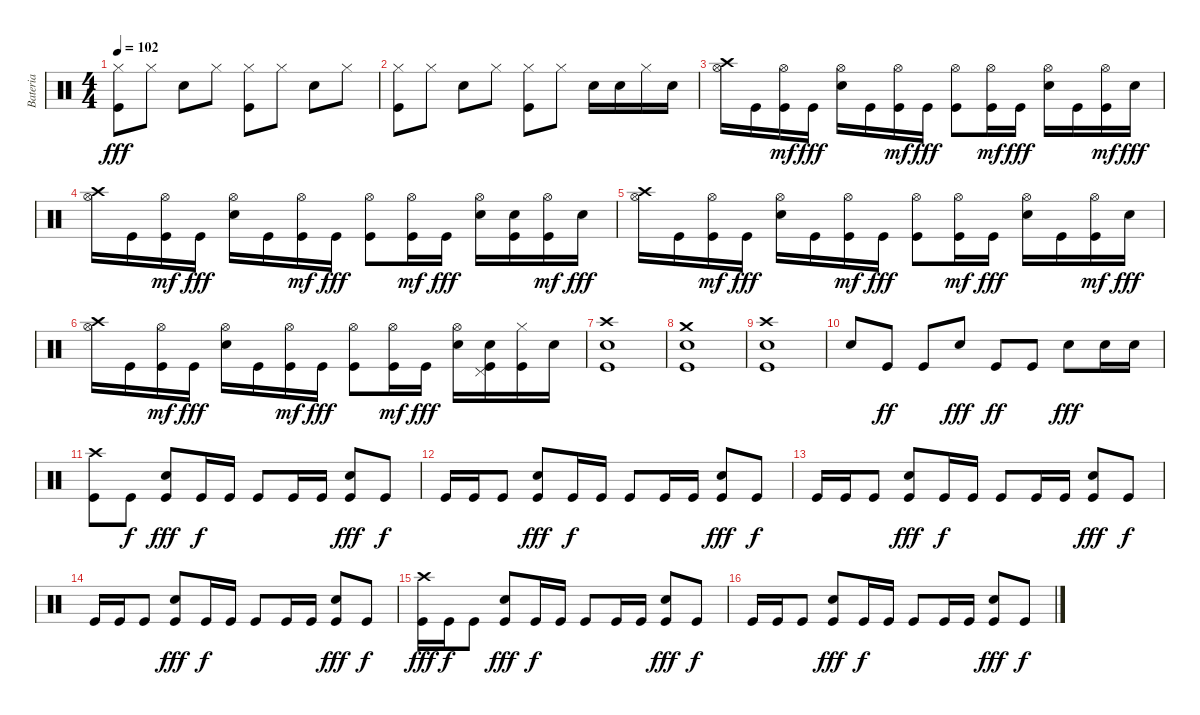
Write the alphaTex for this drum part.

\track ("Bateria" "Bateria") {instrument percussion}
\staff {score}
\articulation defaults
\ts (4 4)
\tempo 102
\clef neutral
\ks c
("Kick (hit)" "Hi-Hat (closed)").8{dy fff} "Hi-Hat (closed)".8 "Snare (hit) 2".8 "Hi-Hat (closed)".8 ("Kick (hit)" "Hi-Hat (closed)").8 "Hi-Hat (closed)".8 "Snare (hit) 2".8 "Hi-Hat (closed)".8 |
("Kick (hit)" "Hi-Hat (closed)").8 "Hi-Hat (closed)".8 "Snare (hit) 2".8 "Hi-Hat (closed)".8 ("Kick (hit)" "Hi-Hat (closed)").8 "Hi-Hat (closed)".8 "Snare (hit) 2".16 "Snare (hit) 2".16 "Hi-Hat (closed)".16 "Snare (hit) 2".16 |
("Crash high (hit)" "Hi-Hat (open)").16 "Kick (hit)".16 ("Kick (hit)" "Hi-Hat (open)").16{dy mf} "Kick (hit)".16{dy fff} ("Snare (hit) 2" "Hi-Hat (open)").16 "Kick (hit)".16 ("Kick (hit)" "Hi-Hat (open)").16{dy mf} "Kick (hit)".16{dy fff} ("Kick (hit)" "Hi-Hat (open)").8 ("Kick (hit)" "Hi-Hat (open)").16{dy mf} "Kick (hit)".16{dy fff} ("Snare (hit) 2" "Hi-Hat (open)").16 "Kick (hit)".16 ("Kick (hit)" "Hi-Hat (open)").16{dy mf} "Snare (hit) 2".16{dy fff} |
("Crash high (hit)" "Hi-Hat (open)").16 "Kick (hit)".16 ("Kick (hit)" "Hi-Hat (open)").16{dy mf} "Kick (hit)".16{dy fff} ("Snare (hit) 2" "Hi-Hat (open)").16 "Kick (hit)".16 ("Kick (hit)" "Hi-Hat (open)").16{dy mf} "Kick (hit)".16{dy fff} ("Kick (hit)" "Hi-Hat (open)").8 ("Kick (hit)" "Hi-Hat (open)").16{dy mf} "Kick (hit)".16{dy fff} ("Snare (hit) 2" "Hi-Hat (open)").16 ("Kick (hit)" "Snare (hit) 2").16 ("Kick (hit)" "Hi-Hat (open)").16{dy mf} "Snare (hit) 2".16{dy fff} |
("Crash high (hit)" "Hi-Hat (open)").16 "Kick (hit)".16 ("Kick (hit)" "Hi-Hat (open)").16{dy mf} "Kick (hit)".16{dy fff} ("Snare (hit) 2" "Hi-Hat (open)").16 "Kick (hit)".16 ("Kick (hit)" "Hi-Hat (open)").16{dy mf} "Kick (hit)".16{dy fff} ("Kick (hit)" "Hi-Hat (open)").8 ("Kick (hit)" "Hi-Hat (open)").16{dy mf} "Kick (hit)".16{dy fff} ("Snare (hit) 2" "Hi-Hat (open)").16 "Kick (hit)".16 ("Kick (hit)" "Hi-Hat (open)").16{dy mf} "Snare (hit) 2".16{dy fff} |
("Crash high (hit)" "Hi-Hat (open)").16 "Kick (hit)".16 ("Kick (hit)" "Hi-Hat (open)").16{dy mf} "Kick (hit)".16{dy fff} ("Snare (hit) 2" "Hi-Hat (open)").16 "Kick (hit)".16 ("Kick (hit)" "Hi-Hat (open)").16{dy mf} "Kick (hit)".16{dy fff} ("Kick (hit)" "Hi-Hat (open)").8 ("Kick (hit)" "Hi-Hat (open)").16{dy mf} "Kick (hit)".16{dy fff} ("Snare (hit) 2" "Hi-Hat (open)").16 ("Kick (hit)" "Snare (hit) 2" "Pedal Hi-Hat (hit)").16 ("Kick (hit)" "Hi-Hat (closed)").16 "Snare (hit) 2".16 |
("Snare (hit) 2" "Crash high (hit)" "Kick (hit)").1 |
("Snare (hit) 2" "Crash medium (hit)" "Kick (hit)").1 |
("Snare (hit) 2" "Crash high (hit)" "Kick (hit)").1 |
"Snare (hit) 2".8 "Kick (hit)".8{dy ff} "Kick (hit)".8 "Snare (hit) 2".8{dy fff} "Kick (hit)".8{dy ff} "Kick (hit)".8 "Snare (hit) 2".8{dy fff} "Snare (hit) 2".16 "Snare (hit) 2".16 |
("Kick (hit)" "Crash high (hit)").8 "Kick (hit)".8{dy f} ("Snare (hit) 2" "Kick (hit)").8{dy fff} "Kick (hit)".16{dy f} "Kick (hit)".16 "Kick (hit)".8 "Kick (hit)".16 "Kick (hit)".16 ("Snare (hit) 2" "Kick (hit)").8{dy fff} "Kick (hit)".8{dy f} |
"Kick (hit)".16 "Kick (hit)".16 "Kick (hit)".8 ("Snare (hit) 2" "Kick (hit)").8{dy fff} "Kick (hit)".16{dy f} "Kick (hit)".16 "Kick (hit)".8 "Kick (hit)".16 "Kick (hit)".16 ("Snare (hit) 2" "Kick (hit)").8{dy fff} "Kick (hit)".8{dy f} |
"Kick (hit)".16 "Kick (hit)".16 "Kick (hit)".8 ("Snare (hit) 2" "Kick (hit)").8{dy fff} "Kick (hit)".16{dy f} "Kick (hit)".16 "Kick (hit)".8 "Kick (hit)".16 "Kick (hit)".16 ("Snare (hit) 2" "Kick (hit)").8{dy fff} "Kick (hit)".8{dy f} |
"Kick (hit)".16 "Kick (hit)".16 "Kick (hit)".8 ("Snare (hit) 2" "Kick (hit)").8{dy fff} "Kick (hit)".16{dy f} "Kick (hit)".16 "Kick (hit)".8 "Kick (hit)".16 "Kick (hit)".16 ("Snare (hit) 2" "Kick (hit)").8{dy fff} "Kick (hit)".8{dy f} |
("Kick (hit)" "Crash high (hit)").16{dy fff} "Kick (hit)".16{dy f} "Kick (hit)".8 ("Snare (hit) 2" "Kick (hit)").8{dy fff} "Kick (hit)".16{dy f} "Kick (hit)".16 "Kick (hit)".8 "Kick (hit)".16 "Kick (hit)".16 ("Snare (hit) 2" "Kick (hit)").8{dy fff} "Kick (hit)".8{dy f} |
"Kick (hit)".16 "Kick (hit)".16 "Kick (hit)".8 ("Snare (hit) 2" "Kick (hit)").8{dy fff} "Kick (hit)".16{dy f} "Kick (hit)".16 "Kick (hit)".8 "Kick (hit)".16 "Kick (hit)".16 ("Snare (hit) 2" "Kick (hit)").8{dy fff} "Kick (hit)".8{dy f}
